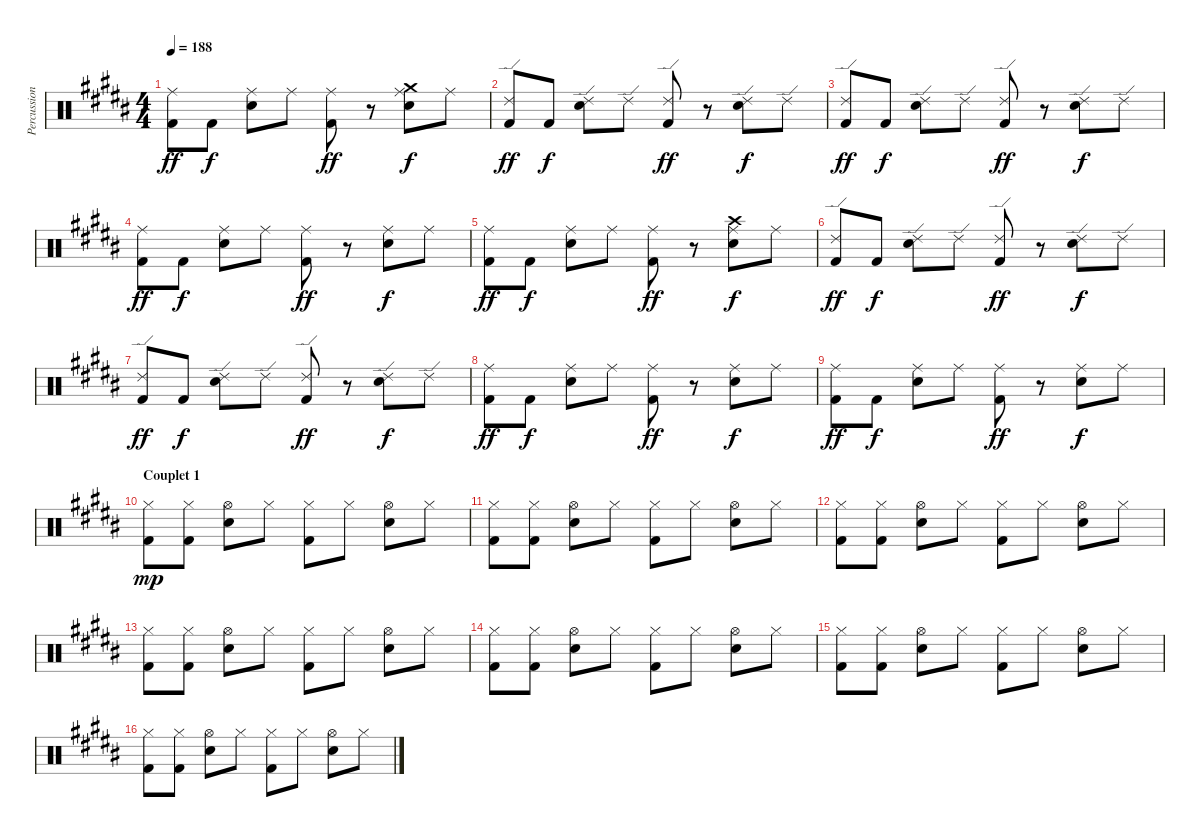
\track ("Percussions" "Percussion") {instrument percussion}
\staff {score}
\articulation defaults
\ts (4 4)
\tempo 188
\clef neutral
\ks b
("Ride (middle)" "Kick (hit) 2").8{dy ff} "Kick (hit) 2".8{dy f} ("Ride (middle)" "Snare (hit) 2").8 "Ride (middle)".8 ("Ride (middle)" "Kick (hit) 2").8{dy ff} r.8 ("Crash medium (hit)" "Ride (middle)" "Snare (hit) 2").8{dy f} "Ride (middle)".8 |
("Ride (edge) 2" "Kick (hit) 2").8{dy ff} "Kick (hit) 2".8{dy f} ("Ride (edge) 2" "Snare (hit) 2").8 "Ride (edge) 2".8 ("Ride (edge) 2" "Kick (hit) 2").8{dy ff} r.8 ("Ride (edge) 2" "Snare (hit) 2").8{dy f} "Ride (edge) 2".8 |
("Ride (edge) 2" "Kick (hit) 2").8{dy ff} "Kick (hit) 2".8{dy f} ("Ride (edge) 2" "Snare (hit) 2").8 "Ride (edge) 2".8 ("Ride (edge) 2" "Kick (hit) 2").8{dy ff} r.8 ("Ride (edge) 2" "Snare (hit) 2").8{dy f} "Ride (edge) 2".8 |
("Ride (middle)" "Kick (hit) 2").8{dy ff} "Kick (hit) 2".8{dy f} ("Ride (middle)" "Snare (hit) 2").8 "Ride (middle)".8 ("Ride (middle)" "Kick (hit) 2").8{dy ff} r.8 ("Ride (middle)" "Snare (hit) 2").8{dy f} "Ride (middle)".8 |
("Ride (middle)" "Kick (hit) 2").8{dy ff} "Kick (hit) 2".8{dy f} ("Ride (middle)" "Snare (hit) 2").8 "Ride (middle)".8 ("Ride (middle)" "Kick (hit) 2").8{dy ff} r.8 ("Crash high (hit)" "Ride (middle)" "Snare (hit) 2").8{dy f} "Ride (middle)".8 |
("Ride (edge) 2" "Kick (hit) 2").8{dy ff} "Kick (hit) 2".8{dy f} ("Ride (edge) 2" "Snare (hit) 2").8 "Ride (edge) 2".8 ("Ride (edge) 2" "Kick (hit) 2").8{dy ff} r.8 ("Ride (edge) 2" "Snare (hit) 2").8{dy f} "Ride (edge) 2".8 |
("Ride (edge) 2" "Kick (hit) 2").8{dy ff} "Kick (hit) 2".8{dy f} ("Ride (edge) 2" "Snare (hit) 2").8 "Ride (edge) 2".8 ("Ride (edge) 2" "Kick (hit) 2").8{dy ff} r.8 ("Ride (edge) 2" "Snare (hit) 2").8{dy f} "Ride (edge) 2".8 |
("Ride (middle)" "Kick (hit) 2").8{dy ff} "Kick (hit) 2".8{dy f} ("Ride (middle)" "Snare (hit) 2").8 "Ride (middle)".8 ("Ride (middle)" "Kick (hit) 2").8{dy ff} r.8 ("Ride (middle)" "Snare (hit) 2").8{dy f} "Ride (middle)".8 |
("Ride (middle)" "Kick (hit) 2").8{dy ff} "Kick (hit) 2".8{dy f} ("Ride (middle)" "Snare (hit) 2").8 "Ride (middle)".8 ("Ride (middle)" "Kick (hit) 2").8{dy ff} r.8 ("Ride (middle)" "Snare (hit) 2").8{dy f} "Ride (middle)".8 |
\section ("" "Couplet 1")
("Hi-Hat (closed)" "Kick (hit) 2").8{dy mp} ("Hi-Hat (closed)" "Kick (hit) 2").8 ("Hi-Hat (open)" "Snare (hit) 2").8 "Hi-Hat (closed)".8 ("Hi-Hat (closed)" "Kick (hit) 2").8 "Hi-Hat (closed)".8 ("Hi-Hat (open)" "Snare (hit) 2").8 "Hi-Hat (closed)".8 |
("Hi-Hat (closed)" "Kick (hit) 2").8 ("Hi-Hat (closed)" "Kick (hit) 2").8 ("Hi-Hat (open)" "Snare (hit) 2").8 "Hi-Hat (closed)".8 ("Hi-Hat (closed)" "Kick (hit) 2").8 "Hi-Hat (closed)".8 ("Hi-Hat (open)" "Snare (hit) 2").8 "Hi-Hat (closed)".8 |
("Hi-Hat (closed)" "Kick (hit) 2").8 ("Hi-Hat (closed)" "Kick (hit) 2").8 ("Hi-Hat (open)" "Snare (hit) 2").8 "Hi-Hat (closed)".8 ("Hi-Hat (closed)" "Kick (hit) 2").8 "Hi-Hat (closed)".8 ("Hi-Hat (open)" "Snare (hit) 2").8 "Hi-Hat (closed)".8 |
("Hi-Hat (closed)" "Kick (hit) 2").8 ("Hi-Hat (closed)" "Kick (hit) 2").8 ("Hi-Hat (open)" "Snare (hit) 2").8 "Hi-Hat (closed)".8 ("Hi-Hat (closed)" "Kick (hit) 2").8 "Hi-Hat (closed)".8 ("Hi-Hat (open)" "Snare (hit) 2").8 "Hi-Hat (closed)".8 |
("Hi-Hat (closed)" "Kick (hit) 2").8 ("Hi-Hat (closed)" "Kick (hit) 2").8 ("Hi-Hat (open)" "Snare (hit) 2").8 "Hi-Hat (closed)".8 ("Hi-Hat (closed)" "Kick (hit) 2").8 "Hi-Hat (closed)".8 ("Hi-Hat (open)" "Snare (hit) 2").8 "Hi-Hat (closed)".8 |
("Hi-Hat (closed)" "Kick (hit) 2").8 ("Hi-Hat (closed)" "Kick (hit) 2").8 ("Hi-Hat (open)" "Snare (hit) 2").8 "Hi-Hat (closed)".8 ("Hi-Hat (closed)" "Kick (hit) 2").8 "Hi-Hat (closed)".8 ("Hi-Hat (open)" "Snare (hit) 2").8 "Hi-Hat (closed)".8 |
("Hi-Hat (closed)" "Kick (hit) 2").8 ("Hi-Hat (closed)" "Kick (hit) 2").8 ("Hi-Hat (open)" "Snare (hit) 2").8 "Hi-Hat (closed)".8 ("Hi-Hat (closed)" "Kick (hit) 2").8 "Hi-Hat (closed)".8 ("Hi-Hat (open)" "Snare (hit) 2").8 "Hi-Hat (closed)".8
